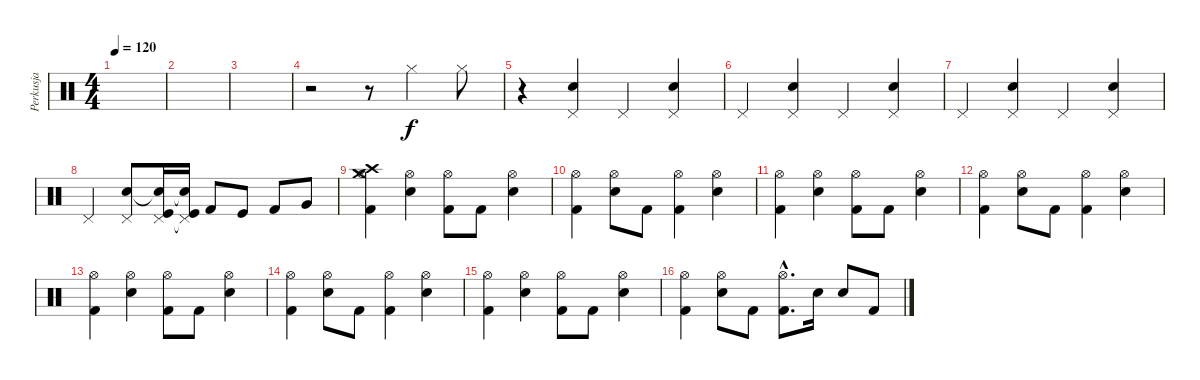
\track ("Perkusja" "Perkusja") {instrument percussion}
\staff {score}
\articulation defaults
\ts (4 4)
\tempo 120
\clef neutral
\ks c
|
|
|
r.2 r.8 "Hi-Hat (closed)".4 "Hi-Hat (closed)".8 |
r.4 ("Snare (hit) 2" "Pedal Hi-Hat (hit)").4 "Pedal Hi-Hat (hit)".4 ("Snare (hit) 2" "Pedal Hi-Hat (hit)").4 |
"Pedal Hi-Hat (hit)".4 ("Snare (hit) 2" "Pedal Hi-Hat (hit)").4 "Pedal Hi-Hat (hit)".4 ("Snare (hit) 2" "Pedal Hi-Hat (hit)").4 |
"Pedal Hi-Hat (hit)".4 ("Snare (hit) 2" "Pedal Hi-Hat (hit)").4 "Pedal Hi-Hat (hit)".4 ("Snare (hit) 2" "Pedal Hi-Hat (hit)").4 |
"Pedal Hi-Hat (hit)".4 ("Snare (hit) 2" "Pedal Hi-Hat (hit)").8 ("Snare (hit)"{t} "Kick (hit)" "Pedal Hi-Hat (hit)").16 ("Snare (hit)"{t} "Kick (hit)" "Pedal Hi-Hat (hit)"{t}).16 "Kick (hit) 2".8 "Kick (hit)".8 "Kick (hit) 2".8 "Very Low Tom (hit)".8 |
("Crash high (hit)" "Crash medium (hit)" "Kick (hit) 2" "Hi-Hat (open)").4 ("Snare (hit) 2" "Hi-Hat (open)").4 ("Kick (hit) 2" "Hi-Hat (open)").8 "Kick (hit) 2".8 ("Snare (hit) 2" "Hi-Hat (open)").4 |
("Kick (hit) 2" "Hi-Hat (open)").4 ("Snare (hit) 2" "Hi-Hat (open)").8 "Kick (hit) 2".8 ("Kick (hit) 2" "Hi-Hat (open)").4 ("Snare (hit) 2" "Hi-Hat (open)").4 |
("Kick (hit) 2" "Hi-Hat (open)").4 ("Snare (hit) 2" "Hi-Hat (open)").4 ("Kick (hit) 2" "Hi-Hat (open)").8 "Kick (hit) 2".8 ("Snare (hit) 2" "Hi-Hat (open)").4 |
("Kick (hit) 2" "Hi-Hat (open)").4 ("Snare (hit) 2" "Hi-Hat (open)").8 "Kick (hit) 2".8 ("Kick (hit) 2" "Hi-Hat (open)").4 ("Snare (hit) 2" "Hi-Hat (open)").4 |
("Kick (hit) 2" "Hi-Hat (open)").4 ("Snare (hit) 2" "Hi-Hat (open)").4 ("Kick (hit) 2" "Hi-Hat (open)").8 "Kick (hit) 2".8 ("Snare (hit) 2" "Hi-Hat (open)").4 |
("Kick (hit) 2" "Hi-Hat (open)").4 ("Snare (hit) 2" "Hi-Hat (open)").8 "Kick (hit) 2".8 ("Kick (hit) 2" "Hi-Hat (open)").4 ("Snare (hit) 2" "Hi-Hat (open)").4 |
("Kick (hit) 2" "Hi-Hat (open)").4 ("Snare (hit) 2" "Hi-Hat (open)").4 ("Kick (hit) 2" "Hi-Hat (open)").8 "Kick (hit) 2".8 ("Snare (hit) 2" "Hi-Hat (open)").4 |
("Kick (hit) 2" "Hi-Hat (open)").4 ("Snare (hit) 2" "Hi-Hat (open)").8 "Kick (hit) 2".8 ("Kick (hit) 2"{hac} "Hi-Hat (open)"{hac}).8{d} "Electric Snare (hit)".16 "Electric Snare (hit)".8 "Kick (hit) 2".8
